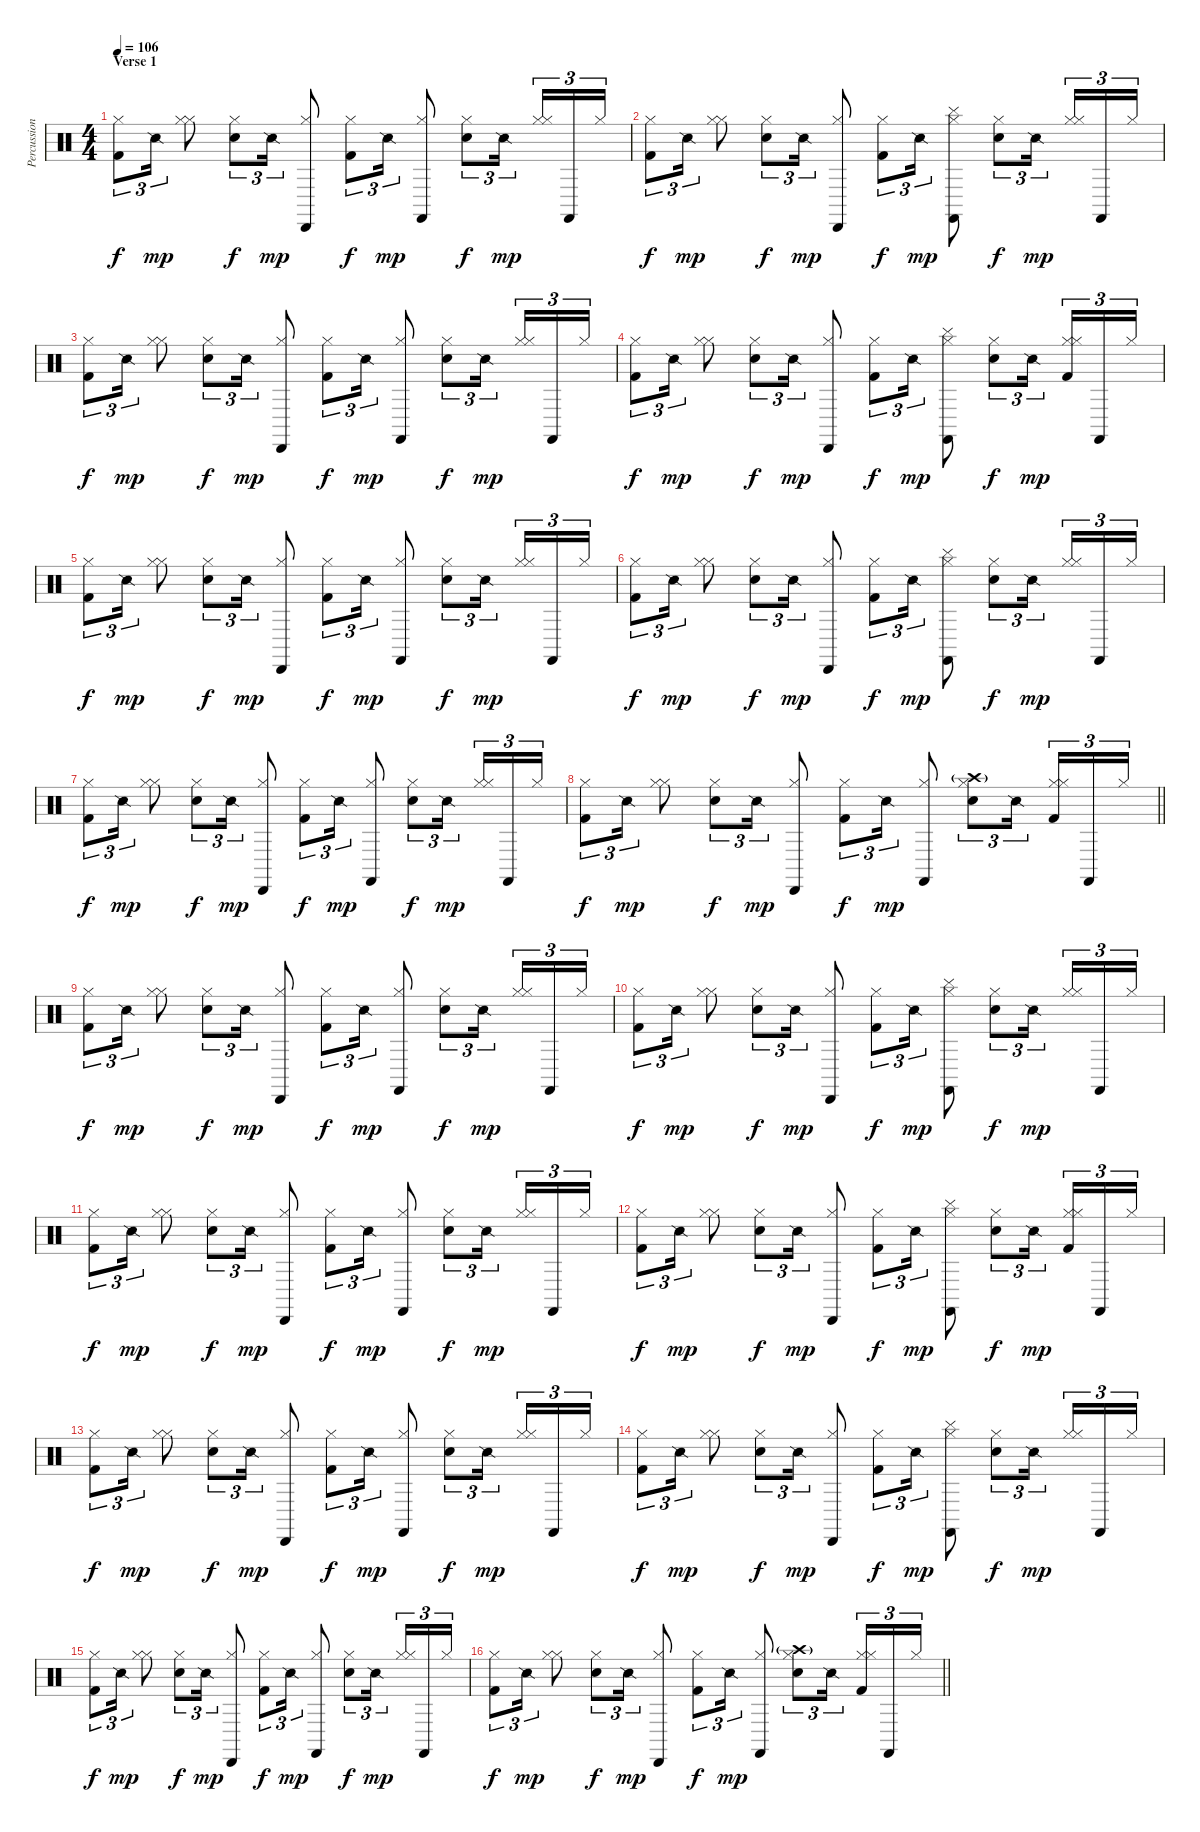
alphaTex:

\track ("Percussion" "Percussion") {instrument percussion}
\staff {score}
\articulation defaults
\ts (4 4)
\section ("" "Verse 1")
\tempo 106
\clef neutral
\ks c
("Hi-Hat (closed)" "Kick (hit) 2").8{tu (3 2) dy f} "Snare (side stick) 2".16{tu (3 2) dy mp} ("Hi-Hat (closed)" "Hi-Hat (closed)").8 ("Hi-Hat (closed)" "Electric Snare (hit)").8{tu (3 2) dy f} "Snare (side stick) 2".16{tu (3 2) dy mp} ("Hi-Hat (closed)" "Cabasa (hit)").8 ("Hi-Hat (closed)" "Kick (hit) 2").8{tu (3 2) dy f} "Snare (side stick) 2".16{tu (3 2) dy mp} ("Hi-Hat (closed)" "Castanets (hit)").8 ("Hi-Hat (closed)" "Electric Snare (hit)").8{tu (3 2) dy f} "Snare (side stick) 2".16{tu (3 2) dy mp beam splitsecondary} ("Hi-Hat (closed)" "Hi-Hat (closed)").16{tu (3 2)} "Castanets (hit)".16{tu (3 2)} "Hi-Hat (closed)".16{tu (3 2)} |
("Hi-Hat (closed)" "Kick (hit) 2").8{tu (3 2) dy f} "Snare (side stick) 2".16{tu (3 2) dy mp} ("Hi-Hat (closed)" "Hi-Hat (closed)").8 ("Hi-Hat (closed)" "Electric Snare (hit)").8{tu (3 2) dy f} "Snare (side stick) 2".16{tu (3 2) dy mp} ("Hi-Hat (closed)" "Cabasa (hit)").8 ("Hi-Hat (closed)" "Kick (hit) 2").8{tu (3 2) dy f} "Snare (side stick) 2".16{tu (3 2) dy mp} ("Hi-Hat (closed)" "Castanets (hit)" "Cymbal (hit)").8 ("Hi-Hat (closed)" "Electric Snare (hit)").8{tu (3 2) dy f} "Snare (side stick) 2".16{tu (3 2) dy mp beam splitsecondary} ("Hi-Hat (closed)" "Hi-Hat (closed)").16{tu (3 2)} "Castanets (hit)".16{tu (3 2)} "Hi-Hat (closed)".16{tu (3 2)} |
("Hi-Hat (closed)" "Kick (hit) 2").8{tu (3 2) dy f} "Snare (side stick) 2".16{tu (3 2) dy mp} ("Hi-Hat (closed)" "Hi-Hat (closed)").8 ("Hi-Hat (closed)" "Electric Snare (hit)").8{tu (3 2) dy f} "Snare (side stick) 2".16{tu (3 2) dy mp} ("Hi-Hat (closed)" "Cabasa (hit)").8 ("Hi-Hat (closed)" "Kick (hit) 2").8{tu (3 2) dy f} "Snare (side stick) 2".16{tu (3 2) dy mp} ("Hi-Hat (closed)" "Castanets (hit)").8 ("Hi-Hat (closed)" "Electric Snare (hit)").8{tu (3 2) dy f} "Snare (side stick) 2".16{tu (3 2) dy mp beam splitsecondary} ("Hi-Hat (closed)" "Hi-Hat (closed)").16{tu (3 2)} "Castanets (hit)".16{tu (3 2)} "Hi-Hat (closed)".16{tu (3 2)} |
("Hi-Hat (closed)" "Kick (hit) 2").8{tu (3 2) dy f} "Snare (side stick) 2".16{tu (3 2) dy mp} ("Hi-Hat (closed)" "Hi-Hat (closed)").8 ("Hi-Hat (closed)" "Electric Snare (hit)").8{tu (3 2) dy f} "Snare (side stick) 2".16{tu (3 2) dy mp} ("Hi-Hat (closed)" "Cabasa (hit)").8 ("Hi-Hat (closed)" "Kick (hit) 2").8{tu (3 2) dy f} "Snare (side stick) 2".16{tu (3 2) dy mp} ("Hi-Hat (closed)" "Castanets (hit)" "Cymbal (hit)").8 ("Hi-Hat (closed)" "Electric Snare (hit)").8{tu (3 2) dy f} "Snare (side stick) 2".16{tu (3 2) dy mp beam splitsecondary} ("Hi-Hat (closed)" "Hi-Hat (closed)" "Kick (hit) 2").16{tu (3 2)} "Castanets (hit)".16{tu (3 2)} "Hi-Hat (closed)".16{tu (3 2)} |
("Hi-Hat (closed)" "Kick (hit) 2").8{tu (3 2) dy f} "Snare (side stick) 2".16{tu (3 2) dy mp} ("Hi-Hat (closed)" "Hi-Hat (closed)").8 ("Hi-Hat (closed)" "Electric Snare (hit)").8{tu (3 2) dy f} "Snare (side stick) 2".16{tu (3 2) dy mp} ("Hi-Hat (closed)" "Cabasa (hit)").8 ("Hi-Hat (closed)" "Kick (hit) 2").8{tu (3 2) dy f} "Snare (side stick) 2".16{tu (3 2) dy mp} ("Hi-Hat (closed)" "Castanets (hit)").8 ("Hi-Hat (closed)" "Electric Snare (hit)").8{tu (3 2) dy f} "Snare (side stick) 2".16{tu (3 2) dy mp beam splitsecondary} ("Hi-Hat (closed)" "Hi-Hat (closed)").16{tu (3 2)} "Castanets (hit)".16{tu (3 2)} "Hi-Hat (closed)".16{tu (3 2)} |
("Hi-Hat (closed)" "Kick (hit) 2").8{tu (3 2) dy f} "Snare (side stick) 2".16{tu (3 2) dy mp} ("Hi-Hat (closed)" "Hi-Hat (closed)").8 ("Hi-Hat (closed)" "Electric Snare (hit)").8{tu (3 2) dy f} "Snare (side stick) 2".16{tu (3 2) dy mp} ("Hi-Hat (closed)" "Cabasa (hit)").8 ("Hi-Hat (closed)" "Kick (hit) 2").8{tu (3 2) dy f} "Snare (side stick) 2".16{tu (3 2) dy mp} ("Hi-Hat (closed)" "Castanets (hit)" "Cymbal (hit)").8 ("Hi-Hat (closed)" "Electric Snare (hit)").8{tu (3 2) dy f} "Snare (side stick) 2".16{tu (3 2) dy mp beam splitsecondary} ("Hi-Hat (closed)" "Hi-Hat (closed)").16{tu (3 2)} "Castanets (hit)".16{tu (3 2)} "Hi-Hat (closed)".16{tu (3 2)} |
("Hi-Hat (closed)" "Kick (hit) 2").8{tu (3 2) dy f} "Snare (side stick) 2".16{tu (3 2) dy mp} ("Hi-Hat (closed)" "Hi-Hat (closed)").8 ("Hi-Hat (closed)" "Electric Snare (hit)").8{tu (3 2) dy f} "Snare (side stick) 2".16{tu (3 2) dy mp} ("Hi-Hat (closed)" "Cabasa (hit)").8 ("Hi-Hat (closed)" "Kick (hit) 2").8{tu (3 2) dy f} "Snare (side stick) 2".16{tu (3 2) dy mp} ("Hi-Hat (closed)" "Castanets (hit)").8 ("Hi-Hat (closed)" "Electric Snare (hit)").8{tu (3 2) dy f} "Snare (side stick) 2".16{tu (3 2) dy mp beam splitsecondary} ("Hi-Hat (closed)" "Hi-Hat (closed)").16{tu (3 2)} "Castanets (hit)".16{tu (3 2)} "Hi-Hat (closed)".16{tu (3 2)} |
\barLineRight lightlight
("Hi-Hat (closed)" "Kick (hit) 2").8{tu (3 2) dy f} "Snare (side stick) 2".16{tu (3 2) dy mp} ("Hi-Hat (closed)" "Hi-Hat (closed)").8 ("Hi-Hat (closed)" "Electric Snare (hit)").8{tu (3 2) dy f} "Snare (side stick) 2".16{tu (3 2) dy mp} ("Hi-Hat (closed)" "Cabasa (hit)").8 ("Hi-Hat (closed)" "Kick (hit) 2").8{tu (3 2) dy f} "Snare (side stick) 2".16{tu (3 2) dy mp} ("Hi-Hat (closed)" "Castanets (hit)").8 ("Crash high (hit)"{g} "Hi-Hat (closed)" "Electric Snare (hit)").8{tu (3 2)} "Snare (side stick) 2".16{tu (3 2) beam splitsecondary} ("Hi-Hat (closed)" "Hi-Hat (closed)" "Kick (hit) 2").16{tu (3 2)} "Castanets (hit)".16{tu (3 2)} "Hi-Hat (closed)".16{tu (3 2)} |
\section ("" "")
("Hi-Hat (closed)" "Kick (hit) 2").8{tu (3 2) dy f} "Snare (side stick) 2".16{tu (3 2) dy mp} ("Hi-Hat (closed)" "Hi-Hat (closed)").8 ("Hi-Hat (closed)" "Electric Snare (hit)").8{tu (3 2) dy f} "Snare (side stick) 2".16{tu (3 2) dy mp} ("Hi-Hat (closed)" "Cabasa (hit)").8 ("Hi-Hat (closed)" "Kick (hit) 2").8{tu (3 2) dy f} "Snare (side stick) 2".16{tu (3 2) dy mp} ("Hi-Hat (closed)" "Castanets (hit)").8 ("Hi-Hat (closed)" "Electric Snare (hit)").8{tu (3 2) dy f} "Snare (side stick) 2".16{tu (3 2) dy mp beam splitsecondary} ("Hi-Hat (closed)" "Hi-Hat (closed)").16{tu (3 2)} "Castanets (hit)".16{tu (3 2)} "Hi-Hat (closed)".16{tu (3 2)} |
("Hi-Hat (closed)" "Kick (hit) 2").8{tu (3 2) dy f} "Snare (side stick) 2".16{tu (3 2) dy mp} ("Hi-Hat (closed)" "Hi-Hat (closed)").8 ("Hi-Hat (closed)" "Electric Snare (hit)").8{tu (3 2) dy f} "Snare (side stick) 2".16{tu (3 2) dy mp} ("Hi-Hat (closed)" "Cabasa (hit)").8 ("Hi-Hat (closed)" "Kick (hit) 2").8{tu (3 2) dy f} "Snare (side stick) 2".16{tu (3 2) dy mp} ("Hi-Hat (closed)" "Castanets (hit)" "Cymbal (hit)").8 ("Hi-Hat (closed)" "Electric Snare (hit)").8{tu (3 2) dy f} "Snare (side stick) 2".16{tu (3 2) dy mp beam splitsecondary} ("Hi-Hat (closed)" "Hi-Hat (closed)").16{tu (3 2)} "Castanets (hit)".16{tu (3 2)} "Hi-Hat (closed)".16{tu (3 2)} |
("Hi-Hat (closed)" "Kick (hit) 2").8{tu (3 2) dy f} "Snare (side stick) 2".16{tu (3 2) dy mp} ("Hi-Hat (closed)" "Hi-Hat (closed)").8 ("Hi-Hat (closed)" "Electric Snare (hit)").8{tu (3 2) dy f} "Snare (side stick) 2".16{tu (3 2) dy mp} ("Hi-Hat (closed)" "Cabasa (hit)").8 ("Hi-Hat (closed)" "Kick (hit) 2").8{tu (3 2) dy f} "Snare (side stick) 2".16{tu (3 2) dy mp} ("Hi-Hat (closed)" "Castanets (hit)").8 ("Hi-Hat (closed)" "Electric Snare (hit)").8{tu (3 2) dy f} "Snare (side stick) 2".16{tu (3 2) dy mp beam splitsecondary} ("Hi-Hat (closed)" "Hi-Hat (closed)").16{tu (3 2)} "Castanets (hit)".16{tu (3 2)} "Hi-Hat (closed)".16{tu (3 2)} |
("Hi-Hat (closed)" "Kick (hit) 2").8{tu (3 2) dy f} "Snare (side stick) 2".16{tu (3 2) dy mp} ("Hi-Hat (closed)" "Hi-Hat (closed)").8 ("Hi-Hat (closed)" "Electric Snare (hit)").8{tu (3 2) dy f} "Snare (side stick) 2".16{tu (3 2) dy mp} ("Hi-Hat (closed)" "Cabasa (hit)").8 ("Hi-Hat (closed)" "Kick (hit) 2").8{tu (3 2) dy f} "Snare (side stick) 2".16{tu (3 2) dy mp} ("Hi-Hat (closed)" "Castanets (hit)" "Cymbal (hit)").8 ("Hi-Hat (closed)" "Electric Snare (hit)").8{tu (3 2) dy f} "Snare (side stick) 2".16{tu (3 2) dy mp beam splitsecondary} ("Hi-Hat (closed)" "Hi-Hat (closed)" "Kick (hit) 2").16{tu (3 2)} "Castanets (hit)".16{tu (3 2)} "Hi-Hat (closed)".16{tu (3 2)} |
("Hi-Hat (closed)" "Kick (hit) 2").8{tu (3 2) dy f} "Snare (side stick) 2".16{tu (3 2) dy mp} ("Hi-Hat (closed)" "Hi-Hat (closed)").8 ("Hi-Hat (closed)" "Electric Snare (hit)").8{tu (3 2) dy f} "Snare (side stick) 2".16{tu (3 2) dy mp} ("Hi-Hat (closed)" "Cabasa (hit)").8 ("Hi-Hat (closed)" "Kick (hit) 2").8{tu (3 2) dy f} "Snare (side stick) 2".16{tu (3 2) dy mp} ("Hi-Hat (closed)" "Castanets (hit)").8 ("Hi-Hat (closed)" "Electric Snare (hit)").8{tu (3 2) dy f} "Snare (side stick) 2".16{tu (3 2) dy mp beam splitsecondary} ("Hi-Hat (closed)" "Hi-Hat (closed)").16{tu (3 2)} "Castanets (hit)".16{tu (3 2)} "Hi-Hat (closed)".16{tu (3 2)} |
("Hi-Hat (closed)" "Kick (hit) 2").8{tu (3 2) dy f} "Snare (side stick) 2".16{tu (3 2) dy mp} ("Hi-Hat (closed)" "Hi-Hat (closed)").8 ("Hi-Hat (closed)" "Electric Snare (hit)").8{tu (3 2) dy f} "Snare (side stick) 2".16{tu (3 2) dy mp} ("Hi-Hat (closed)" "Cabasa (hit)").8 ("Hi-Hat (closed)" "Kick (hit) 2").8{tu (3 2) dy f} "Snare (side stick) 2".16{tu (3 2) dy mp} ("Hi-Hat (closed)" "Castanets (hit)" "Cymbal (hit)").8 ("Hi-Hat (closed)" "Electric Snare (hit)").8{tu (3 2) dy f} "Snare (side stick) 2".16{tu (3 2) dy mp beam splitsecondary} ("Hi-Hat (closed)" "Hi-Hat (closed)").16{tu (3 2)} "Castanets (hit)".16{tu (3 2)} "Hi-Hat (closed)".16{tu (3 2)} |
("Hi-Hat (closed)" "Kick (hit) 2").8{tu (3 2) dy f} "Snare (side stick) 2".16{tu (3 2) dy mp} ("Hi-Hat (closed)" "Hi-Hat (closed)").8 ("Hi-Hat (closed)" "Electric Snare (hit)").8{tu (3 2) dy f} "Snare (side stick) 2".16{tu (3 2) dy mp} ("Hi-Hat (closed)" "Cabasa (hit)").8 ("Hi-Hat (closed)" "Kick (hit) 2").8{tu (3 2) dy f} "Snare (side stick) 2".16{tu (3 2) dy mp} ("Hi-Hat (closed)" "Castanets (hit)").8 ("Hi-Hat (closed)" "Electric Snare (hit)").8{tu (3 2) dy f} "Snare (side stick) 2".16{tu (3 2) dy mp beam splitsecondary} ("Hi-Hat (closed)" "Hi-Hat (closed)").16{tu (3 2)} "Castanets (hit)".16{tu (3 2)} "Hi-Hat (closed)".16{tu (3 2)} |
\barLineRight lightlight
("Hi-Hat (closed)" "Kick (hit) 2").8{tu (3 2) dy f} "Snare (side stick) 2".16{tu (3 2) dy mp} ("Hi-Hat (closed)" "Hi-Hat (closed)").8 ("Hi-Hat (closed)" "Electric Snare (hit)").8{tu (3 2) dy f} "Snare (side stick) 2".16{tu (3 2) dy mp} ("Hi-Hat (closed)" "Cabasa (hit)").8 ("Hi-Hat (closed)" "Kick (hit) 2").8{tu (3 2) dy f} "Snare (side stick) 2".16{tu (3 2) dy mp} ("Hi-Hat (closed)" "Castanets (hit)").8 ("Crash high (hit)"{g} "Hi-Hat (closed)" "Electric Snare (hit)").8{tu (3 2)} "Snare (side stick) 2".16{tu (3 2) beam splitsecondary} ("Hi-Hat (closed)" "Hi-Hat (closed)" "Kick (hit) 2").16{tu (3 2)} "Castanets (hit)".16{tu (3 2)} "Hi-Hat (closed)".16{tu (3 2)}
